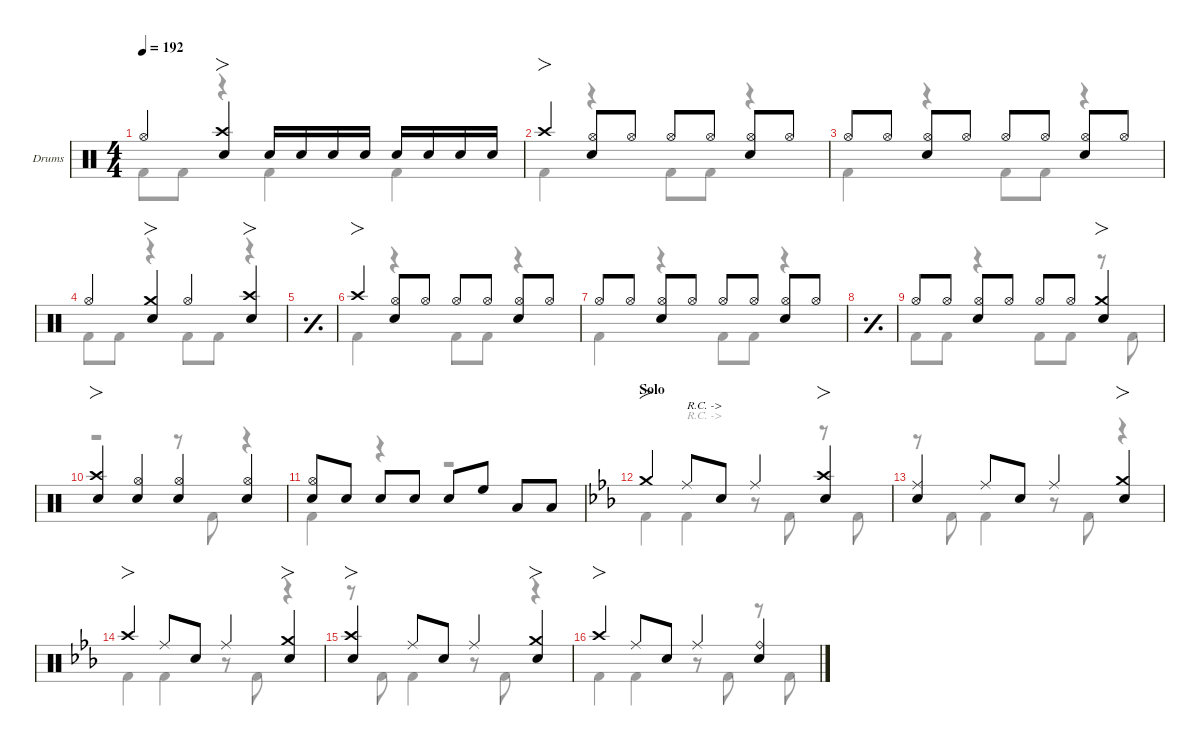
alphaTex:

\defaultSystemsLayout 4
\hideDynamics
\bracketExtendMode nobrackets
\firstSystemTrackNameOrientation horizontal
\track ("Drums" "Drums") {defaultSystemsLayout 4 instrument percussion}
\staff {score}
\articulation defaults
\voice
\ts (4 4)
\tempo 192
\clef neutral
\scale
0.244132
\ks c "Hi-Hat (open)".4{dy f beam Up}
("Crash high (hit)" "Snare (hit) 2").4{fo beam Up} "Snare (hit) 2".16{beam Up} "Snare (hit) 2".16{dy mf beam Up} "Snare (hit) 2".16{dy f beam Up} "Snare (hit) 2".16{dy mf beam Up beam split} "Snare (hit) 2".16{dy f beam Up} "Snare (hit) 2".16{dy mf beam Up} "Snare (hit) 2".16{dy f beam Up} "Snare (hit) 2".16{dy mf beam Up} |
\scale
0.267605 "Crash high (hit)".4{fo dy f beam Up} ("Hi-Hat (open)" "Snare (hit) 2").8{beam Up} "Hi-Hat (open)".8{dy mf beam Up} "Hi-Hat (open)".8{dy f beam Up} "Hi-Hat (open)".8{dy mf beam Up} ("Hi-Hat (open)" "Snare (hit) 2").8{dy f beam Up} "Hi-Hat (open)".8{dy mf beam Up} |
\scale
0.244132 "Hi-Hat (open)".8{dy f beam Up} "Hi-Hat (open)".8{dy mf beam Up} ("Hi-Hat (open)" "Snare (hit) 2").8{dy f beam Up} "Hi-Hat (open)".8{dy mf beam Up} "Hi-Hat (open)".8{dy f beam Up} "Hi-Hat (open)".8{dy mf beam Up} ("Hi-Hat (open)" "Snare (hit) 2").8{dy f beam Up} "Hi-Hat (open)".8{dy mf beam Up} |
\scale
0.244132 "Hi-Hat (open)".4{dy f beam Up} ("Crash medium (hit)" "Snare (hit) 2").4{fo beam Up} "Hi-Hat (open)".4{beam Up} ("Crash high (hit)" "Snare (hit) 2").4{fo beam Up} |
\simile simple
\scale
0.244132 |
\simile none
\scale
0.267605 "Crash high (hit)".4{fo beam Up} ("Hi-Hat (open)" "Snare (hit) 2").8{beam Up} "Hi-Hat (open)".8{dy mf beam Up} "Hi-Hat (open)".8{dy f beam Up} "Hi-Hat (open)".8{dy mf beam Up} ("Hi-Hat (open)" "Snare (hit) 2").8{dy f beam Up} "Hi-Hat (open)".8{dy mf beam Up} |
\scale
0.244132 "Hi-Hat (open)".8{dy f beam Up} "Hi-Hat (open)".8{dy mf beam Up} ("Hi-Hat (open)" "Snare (hit) 2").8{dy f beam Up} "Hi-Hat (open)".8{dy mf beam Up} "Hi-Hat (open)".8{dy f beam Up} "Hi-Hat (open)".8{dy mf beam Up} ("Hi-Hat (open)" "Snare (hit) 2").8{dy f beam Up} "Hi-Hat (open)".8{dy mf beam Up} |
\simile simple
\scale
0.244132 |
\simile none
\scale
0.244132 "Hi-Hat (open)".8{dy f beam Up} "Hi-Hat (open)".8{dy mf beam Up} ("Hi-Hat (open)" "Snare (hit) 2").8{dy f beam Up} "Hi-Hat (open)".8{dy mf beam Up} "Hi-Hat (open)".8{dy f beam Up} "Hi-Hat (open)".8{dy mf beam Up} ("Snare (hit) 2" "Crash medium (hit)").4{fo dy f beam Up} |
\scale
0.511737 ("Snare (hit) 2" "Crash high (hit)").4{fo beam Up} ("Snare (hit) 2" "Hi-Hat (open)").4{beam Up} ("Snare (hit) 2" "Hi-Hat (open)").4{beam Up} ("Snare (hit) 2" "Hi-Hat (open)").4{beam Up} |
\scale
0.488263 ("Hi-Hat (open)" "Snare (hit) 2").8{beam Up} "Snare (hit) 2".8{beam Up} "Snare (hit) 2".8{beam Up} "Snare (hit) 2".8{beam Up} "Snare (hit) 2".8{beam Up} "High Floor Tom (hit)".8{beam Up} "Low Tom (hit)".8{beam Up} "Low Tom (hit)".8{beam Up} |
\section ("" "Solo")
\scale
0.267605
\ks eb "Crash medium (hit)"{acc forcenatural}.4{fo beam Up} "Ride (middle)"{acc forcenatural}.8{txt "R.C. ->" beam Up} "Snare (hit) 2"{acc forcenatural}.8{beam Up} "Ride (middle)"{acc forcenatural}.4{beam Up}
("Crash high (hit)"{acc forcenatural} "Snare (hit) 2"{acc forcenatural}).4{fo beam Up} |
\scale
0.244132 ("Snare (hit) 2"{acc forcenatural} "Ride (middle)"{acc forcenatural}).4{beam Up} "Ride (middle)"{acc forcenatural}.8{dy mf beam Up} "Snare (hit) 2"{acc forcenatural}.8{dy f beam Up} "Ride (middle)"{acc forcenatural}.4{beam Up} ("Snare (hit) 2"{acc forcenatural} "Crash medium (hit)"{acc forcenatural}).4{fo beam Up} |
\scale
0.240816 "Crash high (hit)"{acc forcenatural}.4{fo beam Up} "Ride (middle)"{acc forcenatural}.8{beam Up} "Snare (hit) 2"{acc forcenatural}.8{beam Up} "Ride (middle)"{acc forcenatural}.4{beam Up} ("Crash medium (hit)"{acc forcenatural} "Snare (hit) 2"{acc forcenatural}).4{fo beam Up} |
\scale
0.247447 ("Crash high (hit)"{acc forcenatural} "Snare (hit) 2"{acc forcenatural}).4{fo beam Up} "Ride (middle)"{acc forcenatural}.8{dy mf beam Up} "Snare (hit) 2"{acc forcenatural}.8{dy f beam Up} "Ride (middle)"{acc forcenatural}.4{beam Up} ("Crash medium (hit)"{acc forcenatural} "Snare (hit) 2"{acc forcenatural}).4{fo beam Up} |
\scale
0.267605 "Crash high (hit)"{acc forcenatural}.4{fo beam Up} "Ride (middle)"{acc forcenatural}.8{beam Up} "Snare (hit) 2"{acc forcenatural}.8{beam Up} "Ride (middle)"{acc forcenatural}.4{beam Up} ("Ride (bell)"{acc forcenatural} "Snare (hit) 2"{acc forcenatural}).4{beam Up}
\voice
\clef neutral
\ottava regular
\simile none
\scale
0.244132
\ks c "Kick (hit) 2".8{dy f beam Down} "Kick (hit) 2".8{beam Down}
r.4{beam Down} "Kick (hit) 2".4{beam Down} "Kick (hit) 2".4{beam Down} |
\scale
0.267605 "Kick (hit) 2".4{beam Down} r.4{beam Down} "Kick (hit) 2".8{beam Down} "Kick (hit) 2".8{beam Down} r.4{beam Down} |
\scale
0.244132 "Kick (hit) 2".4{beam Down} r.4{beam Down} "Kick (hit) 2".8{beam Down} "Kick (hit) 2".8{beam Down} r.4{beam Down} |
\scale
0.244132 "Kick (hit) 2".8{beam Down} "Kick (hit) 2".8{beam Down} r.4{beam Down} "Kick (hit) 2".8{beam Down} "Kick (hit) 2".8{beam Down} r.4{beam Down} |
\simile simple
\scale
0.244132 |
\simile none
\scale
0.267605 "Kick (hit) 2".4{beam Down} r.4{beam Down} "Kick (hit) 2".8{beam Down} "Kick (hit) 2".8{beam Down} r.4{beam Down} |
\scale
0.244132 "Kick (hit) 2".4{beam Down} r.4{beam Down} "Kick (hit) 2".8{beam Down} "Kick (hit) 2".8{beam Down} r.4{beam Down} |
\simile simple
\scale
0.244132 |
\simile none
\scale
0.244132 "Kick (hit) 2".8{beam Down} "Kick (hit) 2".8{beam Down} r.4{beam Down} "Kick (hit) 2".8{beam Down} "Kick (hit) 2".8{beam Down} r.8{beam Down} "Kick (hit) 2".8{beam Down} |
\scale
0.511737 r.2{beam Down} r.8{beam Down} "Kick (hit) 2".8{beam Down} r.4{beam Down} |
\scale
0.488263 "Kick (hit) 2".4{beam Down} r.4{beam Down} r.2{beam Down} |
\scale
0.267605
\ks eb "Kick (hit) 2"{acc forcenatural}.4{beam Down} "Kick (hit) 2"{acc forcenatural}.4{txt "R.C. ->" beam Down}
r.8{beam Down} "Kick (hit) 2"{acc forcenatural}.8{beam Down} r.8{beam Down} "Kick (hit) 2"{acc forcenatural}.8{beam Down} |
\scale
0.244132 r.8{beam Down} "Kick (hit) 2"{acc forcenatural}.8{beam Down} "Kick (hit) 2"{acc forcenatural}.4{beam Down} r.8{beam Down} "Kick (hit) 2"{acc forcenatural}.8{beam Down} r.4{beam Down} |
\scale
0.240816 "Kick (hit) 2"{acc forcenatural}.4{beam Down} "Kick (hit) 2"{acc forcenatural}.4{beam Down} r.8{beam Down} "Kick (hit) 2"{acc forcenatural}.8{beam Down} r.4{beam Down} |
\scale
0.247447 r.8{beam Down} "Kick (hit) 2"{acc forcenatural}.8{beam Down} "Kick (hit) 2"{acc forcenatural}.4{beam Down} r.8{beam Down} "Kick (hit) 2"{acc forcenatural}.8{beam Down} r.4{beam Down} |
\scale
0.267605 "Kick (hit) 2"{acc forcenatural}.4{beam Down} "Kick (hit) 2"{acc forcenatural}.4{beam Down} r.8{beam Down} "Kick (hit) 2"{acc forcenatural}.8{beam Down} r.8{beam Down} "Kick (hit) 2"{acc forcenatural}.8{beam Down}
